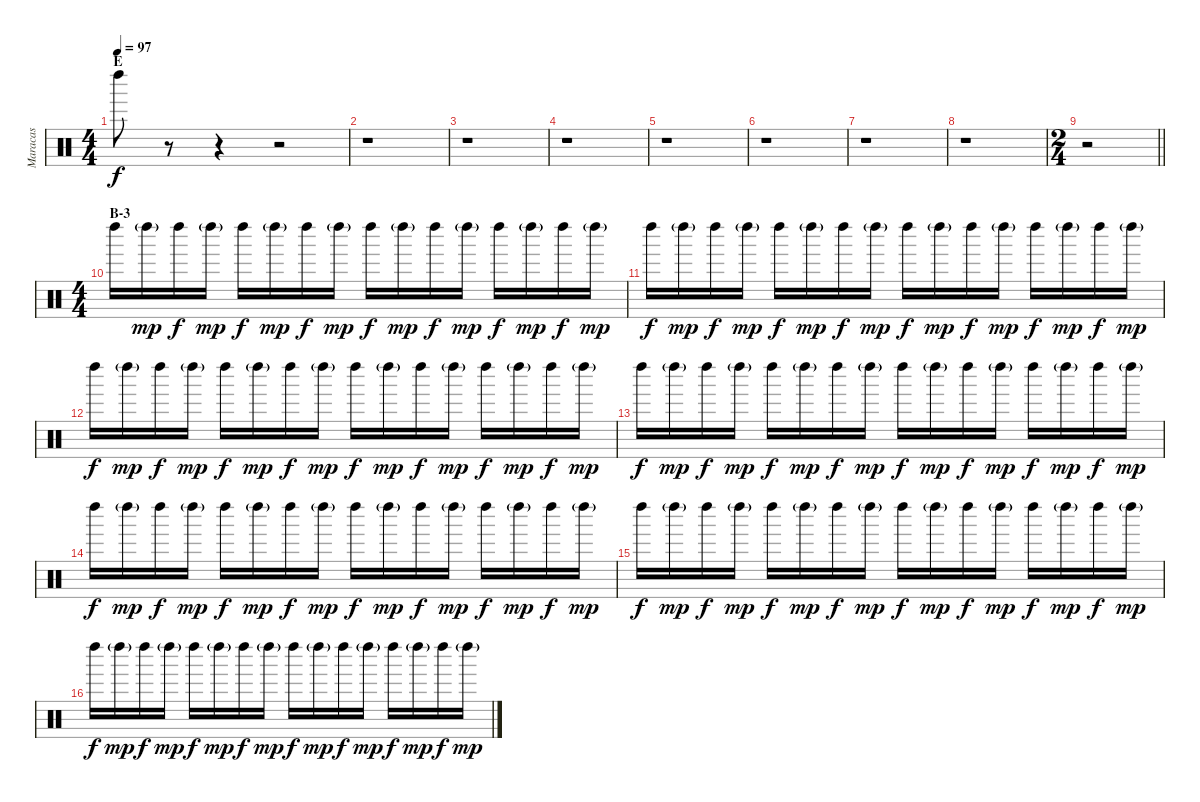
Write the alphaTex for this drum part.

\track ("Maracas" "Maracas") {instrument percussion}
\staff {score}
\articulation defaults
\ts (4 4)
\section ("" "E")
\tempo 97
\clef neutral
\ks c "Left Maraca (hit)".8{dy f}
r.8 r.4 r.2 |
r.1 |
r.1 |
r.1 |
r.1 |
r.1 |
r.1 |
r.1 |
\ts (2 4)
\barLineRight lightlight
r.2 |
\ts (4 4)
\section ("" "B-3")
"Left Maraca (hit)".16 "Left Maraca (hit)"{g}.16{dy mp} "Left Maraca (hit)".16{dy f} "Left Maraca (hit)"{g}.16{dy mp} "Left Maraca (hit)".16{dy f} "Left Maraca (hit)"{g}.16{dy mp} "Left Maraca (hit)".16{dy f} "Left Maraca (hit)"{g}.16{dy mp} "Left Maraca (hit)".16{dy f} "Left Maraca (hit)"{g}.16{dy mp} "Left Maraca (hit)".16{dy f} "Left Maraca (hit)"{g}.16{dy mp} "Left Maraca (hit)".16{dy f} "Left Maraca (hit)"{g}.16{dy mp} "Left Maraca (hit)".16{dy f} "Left Maraca (hit)"{g}.16{dy mp} |
"Left Maraca (hit)".16{dy f} "Left Maraca (hit)"{g}.16{dy mp} "Left Maraca (hit)".16{dy f} "Left Maraca (hit)"{g}.16{dy mp} "Left Maraca (hit)".16{dy f} "Left Maraca (hit)"{g}.16{dy mp} "Left Maraca (hit)".16{dy f} "Left Maraca (hit)"{g}.16{dy mp} "Left Maraca (hit)".16{dy f} "Left Maraca (hit)"{g}.16{dy mp} "Left Maraca (hit)".16{dy f} "Left Maraca (hit)"{g}.16{dy mp} "Left Maraca (hit)".16{dy f} "Left Maraca (hit)"{g}.16{dy mp} "Left Maraca (hit)".16{dy f} "Left Maraca (hit)"{g}.16{dy mp} |
"Left Maraca (hit)".16{dy f} "Left Maraca (hit)"{g}.16{dy mp} "Left Maraca (hit)".16{dy f} "Left Maraca (hit)"{g}.16{dy mp} "Left Maraca (hit)".16{dy f} "Left Maraca (hit)"{g}.16{dy mp} "Left Maraca (hit)".16{dy f} "Left Maraca (hit)"{g}.16{dy mp} "Left Maraca (hit)".16{dy f} "Left Maraca (hit)"{g}.16{dy mp} "Left Maraca (hit)".16{dy f} "Left Maraca (hit)"{g}.16{dy mp} "Left Maraca (hit)".16{dy f} "Left Maraca (hit)"{g}.16{dy mp} "Left Maraca (hit)".16{dy f} "Left Maraca (hit)"{g}.16{dy mp} |
"Left Maraca (hit)".16{dy f} "Left Maraca (hit)"{g}.16{dy mp} "Left Maraca (hit)".16{dy f} "Left Maraca (hit)"{g}.16{dy mp} "Left Maraca (hit)".16{dy f} "Left Maraca (hit)"{g}.16{dy mp} "Left Maraca (hit)".16{dy f} "Left Maraca (hit)"{g}.16{dy mp} "Left Maraca (hit)".16{dy f} "Left Maraca (hit)"{g}.16{dy mp} "Left Maraca (hit)".16{dy f} "Left Maraca (hit)"{g}.16{dy mp} "Left Maraca (hit)".16{dy f} "Left Maraca (hit)"{g}.16{dy mp} "Left Maraca (hit)".16{dy f} "Left Maraca (hit)"{g}.16{dy mp} |
"Left Maraca (hit)".16{dy f} "Left Maraca (hit)"{g}.16{dy mp} "Left Maraca (hit)".16{dy f} "Left Maraca (hit)"{g}.16{dy mp} "Left Maraca (hit)".16{dy f} "Left Maraca (hit)"{g}.16{dy mp} "Left Maraca (hit)".16{dy f} "Left Maraca (hit)"{g}.16{dy mp} "Left Maraca (hit)".16{dy f} "Left Maraca (hit)"{g}.16{dy mp} "Left Maraca (hit)".16{dy f} "Left Maraca (hit)"{g}.16{dy mp} "Left Maraca (hit)".16{dy f} "Left Maraca (hit)"{g}.16{dy mp} "Left Maraca (hit)".16{dy f} "Left Maraca (hit)"{g}.16{dy mp} |
"Left Maraca (hit)".16{dy f} "Left Maraca (hit)"{g}.16{dy mp} "Left Maraca (hit)".16{dy f} "Left Maraca (hit)"{g}.16{dy mp} "Left Maraca (hit)".16{dy f} "Left Maraca (hit)"{g}.16{dy mp} "Left Maraca (hit)".16{dy f} "Left Maraca (hit)"{g}.16{dy mp} "Left Maraca (hit)".16{dy f} "Left Maraca (hit)"{g}.16{dy mp} "Left Maraca (hit)".16{dy f} "Left Maraca (hit)"{g}.16{dy mp} "Left Maraca (hit)".16{dy f} "Left Maraca (hit)"{g}.16{dy mp} "Left Maraca (hit)".16{dy f} "Left Maraca (hit)"{g}.16{dy mp} |
"Left Maraca (hit)".16{dy f} "Left Maraca (hit)"{g}.16{dy mp} "Left Maraca (hit)".16{dy f} "Left Maraca (hit)"{g}.16{dy mp} "Left Maraca (hit)".16{dy f} "Left Maraca (hit)"{g}.16{dy mp} "Left Maraca (hit)".16{dy f} "Left Maraca (hit)"{g}.16{dy mp} "Left Maraca (hit)".16{dy f} "Left Maraca (hit)"{g}.16{dy mp} "Left Maraca (hit)".16{dy f} "Left Maraca (hit)"{g}.16{dy mp} "Left Maraca (hit)".16{dy f} "Left Maraca (hit)"{g}.16{dy mp} "Left Maraca (hit)".16{dy f} "Left Maraca (hit)"{g}.16{dy mp}
